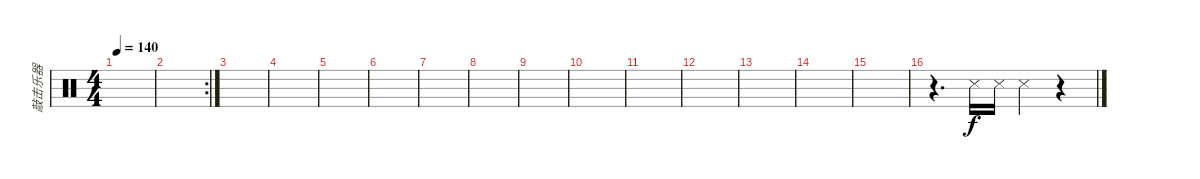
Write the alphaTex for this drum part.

\track ("敲击乐器" "敲击乐器") {instrument percussion}
\staff {score}
\articulation defaults
\ts (4 4)
\tempo 140
\clef neutral
\ks c
|
\rc 2
|
|
|
|
|
|
|
|
|
|
|
|
|
|
r.4{d} "Metronome (hit)".16 "Metronome (hit)".16 "Metronome (hit)".4 r.4
